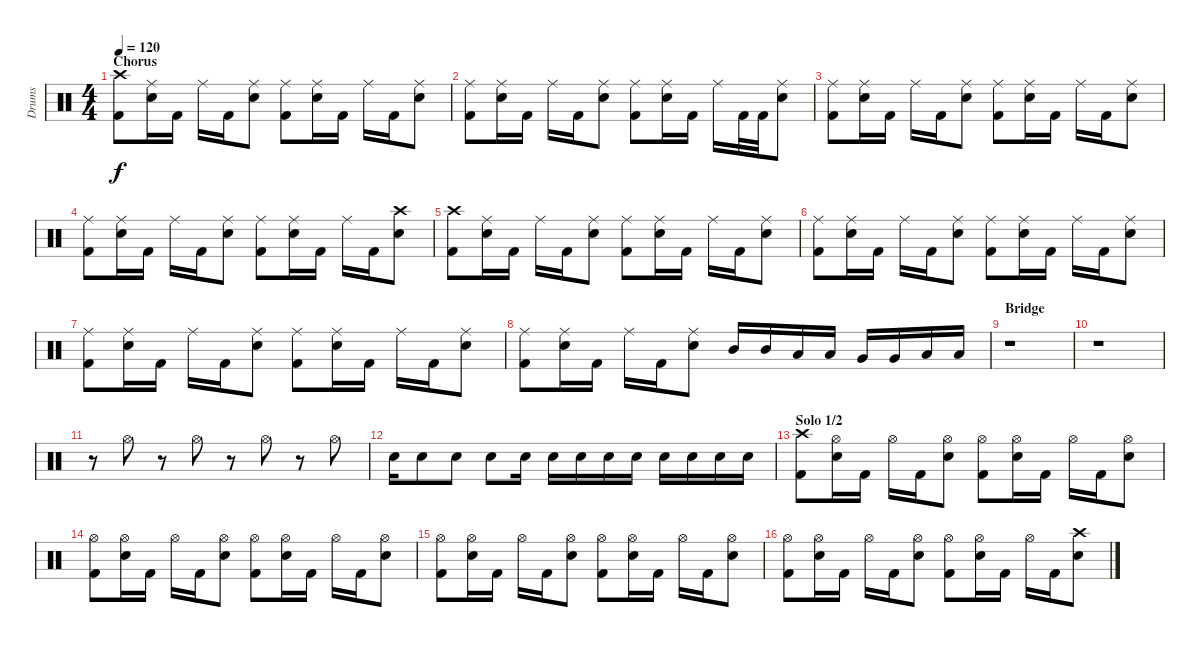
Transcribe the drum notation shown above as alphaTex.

\track ("Drums" "Drums") {instrument percussion}
\staff {score}
\articulation defaults
\ts (4 4)
\section ("" "Chorus")
\tempo 120
\clef neutral
\ks c
("Crash high (hit)" "Kick (hit) 2").8{dy f} ("Ride (middle)" "Snare (hit) 2").16 "Kick (hit) 2".16 "Ride (middle)".16 "Kick (hit) 2".16 ("Ride (middle)" "Snare (hit) 2").8 ("Ride (middle)" "Kick (hit) 2").8 ("Ride (middle)" "Snare (hit) 2").16 "Kick (hit) 2".16 "Ride (middle)".16 "Kick (hit) 2".16 ("Ride (middle)" "Snare (hit) 2").8 |
("Ride (middle)" "Kick (hit) 2").8 ("Ride (middle)" "Snare (hit) 2").16 "Kick (hit) 2".16 "Ride (middle)".16 "Kick (hit) 2".16 ("Ride (middle)" "Snare (hit) 2").8 ("Ride (middle)" "Kick (hit) 2").8 ("Ride (middle)" "Snare (hit) 2").16 "Kick (hit) 2".16 "Ride (middle)".16 "Kick (hit) 2".32 "Kick (hit) 2".32 ("Ride (middle)" "Snare (hit) 2").8 |
("Ride (middle)" "Kick (hit) 2").8 ("Ride (middle)" "Snare (hit) 2").16 "Kick (hit) 2".16 "Ride (middle)".16 "Kick (hit) 2".16 ("Ride (middle)" "Snare (hit) 2").8 ("Ride (middle)" "Kick (hit) 2").8 ("Ride (middle)" "Snare (hit) 2").16 "Kick (hit) 2".16 "Ride (middle)".16 "Kick (hit) 2".16 ("Ride (middle)" "Snare (hit) 2").8 |
("Ride (middle)" "Kick (hit) 2").8 ("Ride (middle)" "Snare (hit) 2").16 "Kick (hit) 2".16 "Ride (middle)".16 "Kick (hit) 2".16 ("Ride (middle)" "Snare (hit) 2").8 ("Ride (middle)" "Kick (hit) 2").8 ("Ride (middle)" "Snare (hit) 2").16 "Kick (hit) 2".16 "Ride (middle)".16 "Kick (hit) 2".16 ("Crash high (hit)" "Snare (hit) 2").8 |
("Crash high (hit)" "Kick (hit) 2").8 ("Ride (middle)" "Snare (hit) 2").16 "Kick (hit) 2".16 "Ride (middle)".16 "Kick (hit) 2".16 ("Ride (middle)" "Snare (hit) 2").8 ("Ride (middle)" "Kick (hit) 2").8 ("Ride (middle)" "Snare (hit) 2").16 "Kick (hit) 2".16 "Ride (middle)".16 "Kick (hit) 2".16 ("Ride (middle)" "Snare (hit) 2").8 |
("Ride (middle)" "Kick (hit) 2").8 ("Ride (middle)" "Snare (hit) 2").16 "Kick (hit) 2".16 "Ride (middle)".16 "Kick (hit) 2".16 ("Ride (middle)" "Snare (hit) 2").8 ("Ride (middle)" "Kick (hit) 2").8 ("Ride (middle)" "Snare (hit) 2").16 "Kick (hit) 2".16 "Ride (middle)".16 "Kick (hit) 2".16 ("Ride (middle)" "Snare (hit) 2").8 |
("Ride (middle)" "Kick (hit) 2").8 ("Ride (middle)" "Snare (hit) 2").16 "Kick (hit) 2".16 "Ride (middle)".16 "Kick (hit) 2".16 ("Ride (middle)" "Snare (hit) 2").8 ("Ride (middle)" "Kick (hit) 2").8 ("Ride (middle)" "Snare (hit) 2").16 "Kick (hit) 2".16 "Ride (middle)".16 "Kick (hit) 2".16 ("Ride (middle)" "Snare (hit) 2").8 |
("Ride (middle)" "Kick (hit) 2").8 ("Ride (middle)" "Snare (hit) 2").16 "Kick (hit) 2".16 "Ride (middle)".16 "Kick (hit) 2".16 ("Ride (middle)" "Snare (hit) 2").8 "Mid Tom (hit)".16 "Mid Tom (hit)".16 "Low Tom (hit)".16 "Low Tom (hit)".16 "Very Low Tom (hit)".16 "Very Low Tom (hit)".16 "Low Floor Tom (hit)".16 "Low Floor Tom (hit)".16 |
\section ("" "Bridge")
r.1 |
r.1 |
r.8 "Hi-Hat (open)".8 r.8 "Hi-Hat (open)".8 r.8 "Hi-Hat (open)".8 r.8 "Hi-Hat (open)".8 |
"Snare (hit) 2".16 "Snare (hit) 2".8 "Snare (hit) 2".8 "Snare (hit) 2".8 "Snare (hit) 2".16 "Snare (hit) 2".16 "Snare (hit) 2".16 "Snare (hit) 2".16 "Snare (hit) 2".16 "Snare (hit) 2".16 "Snare (hit) 2".16 "Snare (hit) 2".16 "Snare (hit) 2".16 |
\section ("" "Solo 1/2")
("Crash high (hit)" "Kick (hit) 2").8 ("Hi-Hat (open)" "Snare (hit) 2").16 "Kick (hit) 2".16 "Hi-Hat (open)".16 "Kick (hit) 2".16 ("Hi-Hat (open)" "Snare (hit) 2").8 ("Hi-Hat (open)" "Kick (hit) 2").8 ("Hi-Hat (open)" "Snare (hit) 2").16 "Kick (hit) 2".16 "Hi-Hat (open)".16 "Kick (hit) 2".16 ("Hi-Hat (open)" "Snare (hit) 2").8 |
("Hi-Hat (open)" "Kick (hit) 2").8 ("Hi-Hat (open)" "Snare (hit) 2").16 "Kick (hit) 2".16 "Hi-Hat (open)".16 "Kick (hit) 2".16 ("Hi-Hat (open)" "Snare (hit) 2").8 ("Hi-Hat (open)" "Kick (hit) 2").8 ("Hi-Hat (open)" "Snare (hit) 2").16 "Kick (hit) 2".16 "Hi-Hat (open)".16 "Kick (hit) 2".16 ("Hi-Hat (open)" "Snare (hit) 2").8 |
("Hi-Hat (open)" "Kick (hit) 2").8 ("Hi-Hat (open)" "Snare (hit) 2").16 "Kick (hit) 2".16 "Hi-Hat (open)".16 "Kick (hit) 2".16 ("Hi-Hat (open)" "Snare (hit) 2").8 ("Hi-Hat (open)" "Kick (hit) 2").8 ("Hi-Hat (open)" "Snare (hit) 2").16 "Kick (hit) 2".16 "Hi-Hat (open)".16 "Kick (hit) 2".16 ("Hi-Hat (open)" "Snare (hit) 2").8 |
("Hi-Hat (open)" "Kick (hit) 2").8 ("Hi-Hat (open)" "Snare (hit) 2").16 "Kick (hit) 2".16 "Hi-Hat (open)".16 "Kick (hit) 2".16 ("Hi-Hat (open)" "Snare (hit) 2").8 ("Hi-Hat (open)" "Kick (hit) 2").8 ("Hi-Hat (open)" "Snare (hit) 2").16 "Kick (hit) 2".16 "Hi-Hat (open)".16 "Kick (hit) 2".16 ("Crash high (hit)" "Snare (hit) 2").8
